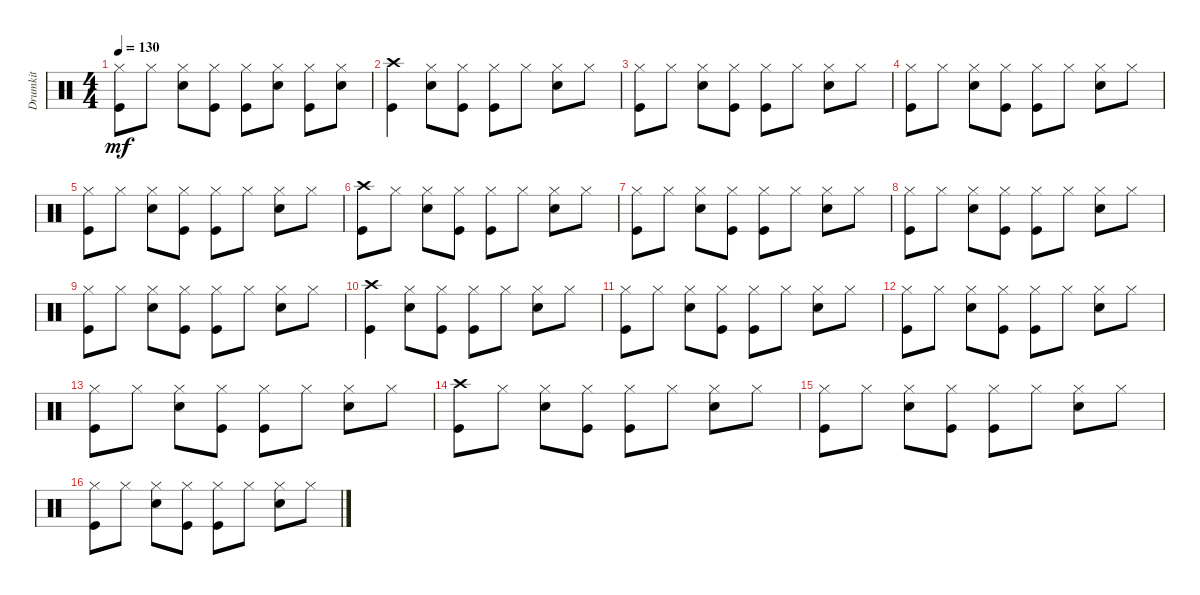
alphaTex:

\track ("Drumkit" "Drumkit") {instrument percussion}
\staff {score}
\articulation defaults
\ts (4 4)
\tempo 130
\clef neutral
\ks c
("Kick (hit)" "Hi-Hat (closed)").8{dy mf} "Hi-Hat (closed)".8 ("Snare (hit) 2" "Hi-Hat (closed)").8 ("Kick (hit)" "Hi-Hat (closed)").8 ("Kick (hit)" "Hi-Hat (closed)").8 ("Hi-Hat (closed)" "Snare (hit) 2").8 ("Hi-Hat (closed)" "Kick (hit)").8 ("Hi-Hat (closed)" "Snare (hit) 2").8 |
("Crash high (hit)" "Kick (hit)").4 ("Snare (hit) 2" "Hi-Hat (closed)").8 ("Kick (hit)" "Hi-Hat (closed)").8 ("Kick (hit)" "Hi-Hat (closed)").8 "Hi-Hat (closed)".8 ("Snare (hit) 2" "Hi-Hat (closed)").8 "Hi-Hat (closed)".8 |
("Kick (hit)" "Hi-Hat (closed)").8 "Hi-Hat (closed)".8 ("Snare (hit) 2" "Hi-Hat (closed)").8 ("Kick (hit)" "Hi-Hat (closed)").8 ("Kick (hit)" "Hi-Hat (closed)").8 "Hi-Hat (closed)".8 ("Snare (hit) 2" "Hi-Hat (closed)").8 "Hi-Hat (closed)".8 |
("Kick (hit)" "Hi-Hat (closed)").8 "Hi-Hat (closed)".8 ("Snare (hit) 2" "Hi-Hat (closed)").8 ("Kick (hit)" "Hi-Hat (closed)").8 ("Kick (hit)" "Hi-Hat (closed)").8 "Hi-Hat (closed)".8 ("Snare (hit) 2" "Hi-Hat (closed)").8 "Hi-Hat (closed)".8 |
("Kick (hit)" "Hi-Hat (closed)").8 "Hi-Hat (closed)".8 ("Snare (hit) 2" "Hi-Hat (closed)").8 ("Kick (hit)" "Hi-Hat (closed)").8 ("Kick (hit)" "Hi-Hat (closed)").8 "Hi-Hat (closed)".8 ("Snare (hit) 2" "Hi-Hat (closed)").8 "Hi-Hat (closed)".8 |
("Kick (hit)" "Crash high (hit)").8 "Hi-Hat (closed)".8 ("Snare (hit) 2" "Hi-Hat (closed)").8 ("Kick (hit)" "Hi-Hat (closed)").8 ("Kick (hit)" "Hi-Hat (closed)").8 "Hi-Hat (closed)".8 ("Snare (hit) 2" "Hi-Hat (closed)").8 "Hi-Hat (closed)".8 |
("Kick (hit)" "Hi-Hat (closed)").8 "Hi-Hat (closed)".8 ("Snare (hit) 2" "Hi-Hat (closed)").8 ("Kick (hit)" "Hi-Hat (closed)").8 ("Kick (hit)" "Hi-Hat (closed)").8 "Hi-Hat (closed)".8 ("Snare (hit) 2" "Hi-Hat (closed)").8 "Hi-Hat (closed)".8 |
("Kick (hit)" "Hi-Hat (closed)").8 "Hi-Hat (closed)".8 ("Snare (hit) 2" "Hi-Hat (closed)").8 ("Kick (hit)" "Hi-Hat (closed)").8 ("Kick (hit)" "Hi-Hat (closed)").8 "Hi-Hat (closed)".8 ("Snare (hit) 2" "Hi-Hat (closed)").8 "Hi-Hat (closed)".8 |
("Kick (hit)" "Hi-Hat (closed)").8 "Hi-Hat (closed)".8 ("Snare (hit) 2" "Hi-Hat (closed)").8 ("Kick (hit)" "Hi-Hat (closed)").8 ("Kick (hit)" "Hi-Hat (closed)").8 "Hi-Hat (closed)".8 ("Snare (hit) 2" "Hi-Hat (closed)").8 "Hi-Hat (closed)".8 |
("Crash high (hit)" "Kick (hit)").4 ("Snare (hit) 2" "Hi-Hat (closed)").8 ("Kick (hit)" "Hi-Hat (closed)").8 ("Kick (hit)" "Hi-Hat (closed)").8 "Hi-Hat (closed)".8 ("Snare (hit) 2" "Hi-Hat (closed)").8 "Hi-Hat (closed)".8 |
("Kick (hit)" "Hi-Hat (closed)").8 "Hi-Hat (closed)".8 ("Snare (hit) 2" "Hi-Hat (closed)").8 ("Kick (hit)" "Hi-Hat (closed)").8 ("Kick (hit)" "Hi-Hat (closed)").8 "Hi-Hat (closed)".8 ("Snare (hit) 2" "Hi-Hat (closed)").8 "Hi-Hat (closed)".8 |
("Kick (hit)" "Hi-Hat (closed)").8 "Hi-Hat (closed)".8 ("Snare (hit) 2" "Hi-Hat (closed)").8 ("Kick (hit)" "Hi-Hat (closed)").8 ("Kick (hit)" "Hi-Hat (closed)").8 "Hi-Hat (closed)".8 ("Snare (hit) 2" "Hi-Hat (closed)").8 "Hi-Hat (closed)".8 |
("Kick (hit)" "Hi-Hat (closed)").8 "Hi-Hat (closed)".8 ("Snare (hit) 2" "Hi-Hat (closed)").8 ("Kick (hit)" "Hi-Hat (closed)").8 ("Kick (hit)" "Hi-Hat (closed)").8 "Hi-Hat (closed)".8 ("Snare (hit) 2" "Hi-Hat (closed)").8 "Hi-Hat (closed)".8 |
("Kick (hit)" "Crash high (hit)").8 "Hi-Hat (closed)".8 ("Snare (hit) 2" "Hi-Hat (closed)").8 ("Kick (hit)" "Hi-Hat (closed)").8 ("Kick (hit)" "Hi-Hat (closed)").8 "Hi-Hat (closed)".8 ("Snare (hit) 2" "Hi-Hat (closed)").8 "Hi-Hat (closed)".8 |
("Kick (hit)" "Hi-Hat (closed)").8 "Hi-Hat (closed)".8 ("Snare (hit) 2" "Hi-Hat (closed)").8 ("Kick (hit)" "Hi-Hat (closed)").8 ("Kick (hit)" "Hi-Hat (closed)").8 "Hi-Hat (closed)".8 ("Snare (hit) 2" "Hi-Hat (closed)").8 "Hi-Hat (closed)".8 |
("Kick (hit)" "Hi-Hat (closed)").8 "Hi-Hat (closed)".8 ("Snare (hit) 2" "Hi-Hat (closed)").8 ("Kick (hit)" "Hi-Hat (closed)").8 ("Kick (hit)" "Hi-Hat (closed)").8 "Hi-Hat (closed)".8 ("Snare (hit) 2" "Hi-Hat (closed)").8 "Hi-Hat (closed)".8
